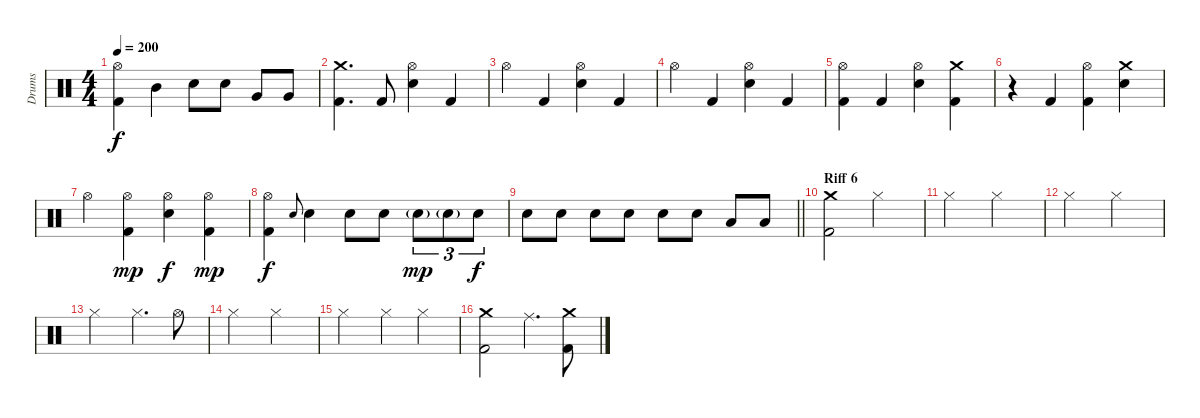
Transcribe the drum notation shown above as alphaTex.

\track ("Drums" "Drums") {instrument percussion}
\staff {score}
\articulation defaults
\ts (4 4)
\tempo 200
\clef neutral
\ks c
("Kick (hit) 2" "Hi-Hat (open)").4{dy f} "Mid Tom (hit)".4 "Electric Snare (hit)".8 "Electric Snare (hit)".8 "Very Low Tom (hit)".8 "Very Low Tom (hit)".8 |
("Crash medium (hit)" "Kick (hit) 2").4{d} "Kick (hit) 2".8 ("Hi-Hat (open)" "Electric Snare (hit)").4 "Kick (hit) 2".4 |
"Hi-Hat (open)".4 "Kick (hit) 2".4 ("Electric Snare (hit)" "Hi-Hat (open)").4 "Kick (hit) 2".4 |
"Hi-Hat (open)".4 "Kick (hit) 2".4 ("Electric Snare (hit)" "Hi-Hat (open)").4 "Kick (hit) 2".4 |
("Hi-Hat (open)" "Kick (hit) 2").4 "Kick (hit) 2".4 ("Hi-Hat (open)" "Electric Snare (hit)").4 ("Crash medium (hit)" "Kick (hit) 2").4 |
r.4 "Kick (hit) 2".4 ("Kick (hit) 2" "Hi-Hat (open)").4 ("Electric Snare (hit)" "Crash medium (hit)").4 |
"Hi-Hat (open)".4 ("Hi-Hat (open)" "Kick (hit) 2").4{dy mp} ("Hi-Hat (open)" "Electric Snare (hit)").4{dy f} ("Hi-Hat (open)" "Kick (hit) 2").4{dy mp} |
("Hi-Hat (open)" "Kick (hit) 2").4{dy f} "Electric Snare (hit)".8{gr onbeat} "Electric Snare (hit)".4 "Electric Snare (hit)".8 "Electric Snare (hit)".8 "Electric Snare (hit)"{g}.8{tu (3 2) dy mp} "Electric Snare (hit)"{g}.8{tu (3 2)} "Electric Snare (hit)".8{tu (3 2) dy f} |
\barLineRight lightlight "Electric Snare (hit)".8 "Electric Snare (hit)".8 "Electric Snare (hit)".8 "Electric Snare (hit)".8 "Electric Snare (hit)".8 "Electric Snare (hit)".8 "Low Tom (hit)".8 "Low Tom (hit)".8
|
\section ("" "Riff 6")
("Crash medium (hit)" "Kick (hit) 2").2 "Hi-Hat (closed)".2 |
"Hi-Hat (closed)".2 "Hi-Hat (closed)".2 |
"Hi-Hat (closed)".2 "Hi-Hat (closed)".2 |
"Hi-Hat (closed)".2 "Hi-Hat (closed)".4{d} "Hi-Hat (open)".8 |
"Hi-Hat (closed)".2 "Hi-Hat (closed)".2 |
"Hi-Hat (closed)".2 "Hi-Hat (closed)".4 "Hi-Hat (closed)".4 |
("Crash medium (hit)" "Kick (hit) 2").2 "Ride (middle)".4{d} ("Crash medium (hit)" "Kick (hit) 2").8
